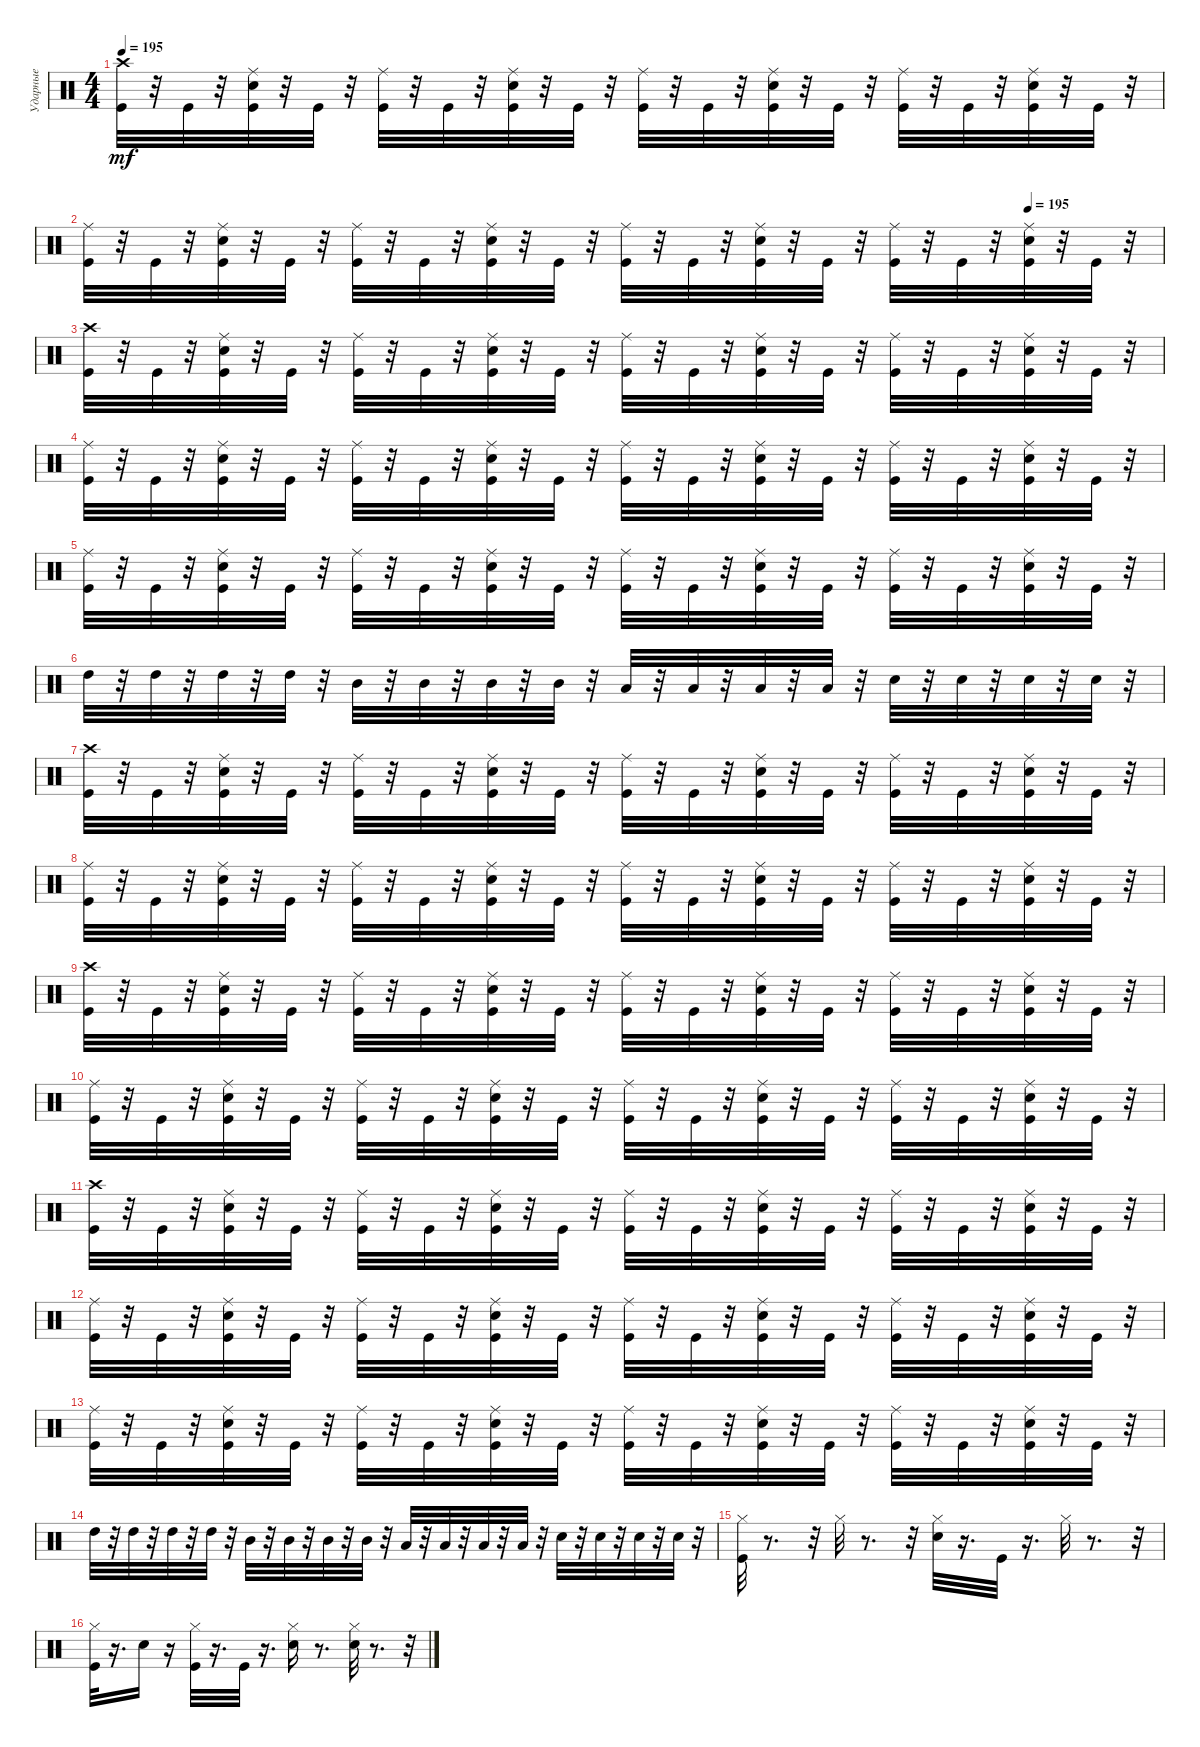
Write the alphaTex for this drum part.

\track ("Ударные" "Ударные") {instrument percussion}
\staff {score}
\articulation defaults
\ts (4 4)
\tempo 195
\clef neutral
\ks c
("Crash high (hit)" "Kick (hit)").32{dy mf} r.32 "Kick (hit)".32 r.32 ("Electric Snare (hit)" "Kick (hit)" "Ride (middle)").32 r.32 "Kick (hit)".32 r.32 ("Ride (middle)" "Kick (hit)").32 r.32 "Kick (hit)".32 r.32 ("Ride (middle)" "Electric Snare (hit)" "Kick (hit)").32 r.32 "Kick (hit)".32 r.32 ("Ride (middle)" "Kick (hit)").32 r.32 "Kick (hit)".32 r.32 ("Ride (middle)" "Kick (hit)" "Electric Snare (hit)").32 r.32 "Kick (hit)".32 r.32 ("Ride (middle)" "Kick (hit)").32 r.32 "Kick (hit)".32 r.32 ("Ride (middle)" "Electric Snare (hit)" "Kick (hit)").32 r.32 "Kick (hit)".32 r.32 |
\tempo (195 0.875)
("Ride (middle)" "Kick (hit)").32 r.32 "Kick (hit)".32 r.32 ("Electric Snare (hit)" "Kick (hit)" "Ride (middle)").32 r.32 "Kick (hit)".32 r.32 ("Ride (middle)" "Kick (hit)").32 r.32 "Kick (hit)".32 r.32 ("Ride (middle)" "Electric Snare (hit)" "Kick (hit)").32 r.32 "Kick (hit)".32 r.32 ("Ride (middle)" "Kick (hit)").32 r.32 "Kick (hit)".32 r.32 ("Ride (middle)" "Kick (hit)" "Electric Snare (hit)").32 r.32 "Kick (hit)".32 r.32 ("Ride (middle)" "Kick (hit)").32 r.32 "Kick (hit)".32 r.32 ("Ride (middle)" "Electric Snare (hit)" "Kick (hit)").32 r.32 "Kick (hit)".32 r.32 |
("Crash high (hit)" "Kick (hit)").32 r.32 "Kick (hit)".32 r.32 ("Electric Snare (hit)" "Kick (hit)" "Ride (middle)").32 r.32 "Kick (hit)".32 r.32 ("Ride (middle)" "Kick (hit)").32 r.32 "Kick (hit)".32 r.32 ("Ride (middle)" "Electric Snare (hit)" "Kick (hit)").32 r.32 "Kick (hit)".32 r.32 ("Ride (middle)" "Kick (hit)").32 r.32 "Kick (hit)".32 r.32 ("Ride (middle)" "Kick (hit)" "Electric Snare (hit)").32 r.32 "Kick (hit)".32 r.32 ("Ride (middle)" "Kick (hit)").32 r.32 "Kick (hit)".32 r.32 ("Ride (middle)" "Electric Snare (hit)" "Kick (hit)").32 r.32 "Kick (hit)".32 r.32 |
("Ride (middle)" "Kick (hit)").32 r.32 "Kick (hit)".32 r.32 ("Electric Snare (hit)" "Kick (hit)" "Ride (middle)").32 r.32 "Kick (hit)".32 r.32 ("Ride (middle)" "Kick (hit)").32 r.32 "Kick (hit)".32 r.32 ("Ride (middle)" "Electric Snare (hit)" "Kick (hit)").32 r.32 "Kick (hit)".32 r.32 ("Ride (middle)" "Kick (hit)").32 r.32 "Kick (hit)".32 r.32 ("Ride (middle)" "Kick (hit)" "Electric Snare (hit)").32 r.32 "Kick (hit)".32 r.32 ("Ride (middle)" "Kick (hit)").32 r.32 "Kick (hit)".32 r.32 ("Ride (middle)" "Electric Snare (hit)" "Kick (hit)").32 r.32 "Kick (hit)".32 r.32 |
("Ride (middle)" "Kick (hit)").32 r.32 "Kick (hit)".32 r.32 ("Electric Snare (hit)" "Kick (hit)" "Ride (middle)").32 r.32 "Kick (hit)".32 r.32 ("Ride (middle)" "Kick (hit)").32 r.32 "Kick (hit)".32 r.32 ("Ride (middle)" "Electric Snare (hit)" "Kick (hit)").32 r.32 "Kick (hit)".32 r.32 ("Ride (middle)" "Kick (hit)").32 r.32 "Kick (hit)".32 r.32 ("Ride (middle)" "Kick (hit)" "Electric Snare (hit)").32 r.32 "Kick (hit)".32 r.32 ("Ride (middle)" "Kick (hit)").32 r.32 "Kick (hit)".32 r.32 ("Ride (middle)" "Electric Snare (hit)" "Kick (hit)").32 r.32 "Kick (hit)".32 r.32 |
"High Tom (hit)".32 r.32 "High Tom (hit)".32 r.32 "High Tom (hit)".32 r.32 "High Tom (hit)".32 r.32 "Mid Tom (hit)".32 r.32 "Mid Tom (hit)".32 r.32 "Mid Tom (hit)".32 r.32 "Mid Tom (hit)".32 r.32 "Low Tom (hit)".32 r.32 "Low Tom (hit)".32 r.32 "Low Tom (hit)".32 r.32 "Low Tom (hit)".32 r.32 "Electric Snare (hit)".32 r.32 "Electric Snare (hit)".32 r.32 "Electric Snare (hit)".32 r.32 "Electric Snare (hit)".32 r.32 |
("Crash high (hit)" "Kick (hit)").32 r.32 "Kick (hit)".32 r.32 ("Electric Snare (hit)" "Kick (hit)" "Ride (middle)").32 r.32 "Kick (hit)".32 r.32 ("Ride (middle)" "Kick (hit)").32 r.32 "Kick (hit)".32 r.32 ("Ride (middle)" "Electric Snare (hit)" "Kick (hit)").32 r.32 "Kick (hit)".32 r.32 ("Ride (middle)" "Kick (hit)").32 r.32 "Kick (hit)".32 r.32 ("Ride (middle)" "Kick (hit)" "Electric Snare (hit)").32 r.32 "Kick (hit)".32 r.32 ("Ride (middle)" "Kick (hit)").32 r.32 "Kick (hit)".32 r.32 ("Ride (middle)" "Electric Snare (hit)" "Kick (hit)").32 r.32 "Kick (hit)".32 r.32 |
("Ride (middle)" "Kick (hit)").32 r.32 "Kick (hit)".32 r.32 ("Electric Snare (hit)" "Kick (hit)" "Ride (middle)").32 r.32 "Kick (hit)".32 r.32 ("Ride (middle)" "Kick (hit)").32 r.32 "Kick (hit)".32 r.32 ("Ride (middle)" "Electric Snare (hit)" "Kick (hit)").32 r.32 "Kick (hit)".32 r.32 ("Ride (middle)" "Kick (hit)").32 r.32 "Kick (hit)".32 r.32 ("Ride (middle)" "Kick (hit)" "Electric Snare (hit)").32 r.32 "Kick (hit)".32 r.32 ("Ride (middle)" "Kick (hit)").32 r.32 "Kick (hit)".32 r.32 ("Ride (middle)" "Electric Snare (hit)" "Kick (hit)").32 r.32 "Kick (hit)".32 r.32 |
("Crash high (hit)" "Kick (hit)").32 r.32 "Kick (hit)".32 r.32 ("Electric Snare (hit)" "Kick (hit)" "Ride (middle)").32 r.32 "Kick (hit)".32 r.32 ("Ride (middle)" "Kick (hit)").32 r.32 "Kick (hit)".32 r.32 ("Ride (middle)" "Electric Snare (hit)" "Kick (hit)").32 r.32 "Kick (hit)".32 r.32 ("Ride (middle)" "Kick (hit)").32 r.32 "Kick (hit)".32 r.32 ("Ride (middle)" "Kick (hit)" "Electric Snare (hit)").32 r.32 "Kick (hit)".32 r.32 ("Ride (middle)" "Kick (hit)").32 r.32 "Kick (hit)".32 r.32 ("Ride (middle)" "Electric Snare (hit)" "Kick (hit)").32 r.32 "Kick (hit)".32 r.32 |
("Ride (middle)" "Kick (hit)").32 r.32 "Kick (hit)".32 r.32 ("Electric Snare (hit)" "Kick (hit)" "Ride (middle)").32 r.32 "Kick (hit)".32 r.32 ("Ride (middle)" "Kick (hit)").32 r.32 "Kick (hit)".32 r.32 ("Ride (middle)" "Electric Snare (hit)" "Kick (hit)").32 r.32 "Kick (hit)".32 r.32 ("Ride (middle)" "Kick (hit)").32 r.32 "Kick (hit)".32 r.32 ("Ride (middle)" "Kick (hit)" "Electric Snare (hit)").32 r.32 "Kick (hit)".32 r.32 ("Ride (middle)" "Kick (hit)").32 r.32 "Kick (hit)".32 r.32 ("Ride (middle)" "Electric Snare (hit)" "Kick (hit)").32 r.32 "Kick (hit)".32 r.32 |
("Crash high (hit)" "Kick (hit)").32 r.32 "Kick (hit)".32 r.32 ("Electric Snare (hit)" "Kick (hit)" "Ride (middle)").32 r.32 "Kick (hit)".32 r.32 ("Ride (middle)" "Kick (hit)").32 r.32 "Kick (hit)".32 r.32 ("Ride (middle)" "Electric Snare (hit)" "Kick (hit)").32 r.32 "Kick (hit)".32 r.32 ("Ride (middle)" "Kick (hit)").32 r.32 "Kick (hit)".32 r.32 ("Ride (middle)" "Kick (hit)" "Electric Snare (hit)").32 r.32 "Kick (hit)".32 r.32 ("Ride (middle)" "Kick (hit)").32 r.32 "Kick (hit)".32 r.32 ("Ride (middle)" "Electric Snare (hit)" "Kick (hit)").32 r.32 "Kick (hit)".32 r.32 |
("Ride (middle)" "Kick (hit)").32 r.32 "Kick (hit)".32 r.32 ("Electric Snare (hit)" "Kick (hit)" "Ride (middle)").32 r.32 "Kick (hit)".32 r.32 ("Ride (middle)" "Kick (hit)").32 r.32 "Kick (hit)".32 r.32 ("Ride (middle)" "Electric Snare (hit)" "Kick (hit)").32 r.32 "Kick (hit)".32 r.32 ("Ride (middle)" "Kick (hit)").32 r.32 "Kick (hit)".32 r.32 ("Ride (middle)" "Kick (hit)" "Electric Snare (hit)").32 r.32 "Kick (hit)".32 r.32 ("Ride (middle)" "Kick (hit)").32 r.32 "Kick (hit)".32 r.32 ("Ride (middle)" "Electric Snare (hit)" "Kick (hit)").32 r.32 "Kick (hit)".32 r.32 |
("Ride (middle)" "Kick (hit)").32 r.32 "Kick (hit)".32 r.32 ("Electric Snare (hit)" "Kick (hit)" "Ride (middle)").32 r.32 "Kick (hit)".32 r.32 ("Ride (middle)" "Kick (hit)").32 r.32 "Kick (hit)".32 r.32 ("Ride (middle)" "Electric Snare (hit)" "Kick (hit)").32 r.32 "Kick (hit)".32 r.32 ("Ride (middle)" "Kick (hit)").32 r.32 "Kick (hit)".32 r.32 ("Ride (middle)" "Kick (hit)" "Electric Snare (hit)").32 r.32 "Kick (hit)".32 r.32 ("Ride (middle)" "Kick (hit)").32 r.32 "Kick (hit)".32 r.32 ("Ride (middle)" "Electric Snare (hit)" "Kick (hit)").32 r.32 "Kick (hit)".32 r.32 |
"High Tom (hit)".32 r.32 "High Tom (hit)".32 r.32 "High Tom (hit)".32 r.32 "High Tom (hit)".32 r.32 "Mid Tom (hit)".32 r.32 "Mid Tom (hit)".32 r.32 "Mid Tom (hit)".32 r.32 "Mid Tom (hit)".32 r.32 "Low Tom (hit)".32 r.32 "Low Tom (hit)".32 r.32 "Low Tom (hit)".32 r.32 "Low Tom (hit)".32 r.32 "Electric Snare (hit)".32 r.32 "Electric Snare (hit)".32 r.32 "Electric Snare (hit)".32 r.32 "Electric Snare (hit)".32 r.32 |
("Kick (hit)" "Hi-Hat (closed)").32 r.8{d} r.32 "Hi-Hat (closed)".32 r.8{d} r.32 ("Hi-Hat (closed)" "Electric Snare (hit)").32 r.16{d} "Kick (hit)".32 r.16{d} "Hi-Hat (closed)".32 r.8{d} r.32 |
("Hi-Hat (closed)" "Kick (hit)").32 r.16{d} "Electric Snare (hit)".16 r.16 ("Kick (hit)" "Hi-Hat (closed)").32 r.16{d} "Kick (hit)".32 r.16{d} ("Hi-Hat (closed)" "Electric Snare (hit)").16 r.8{d} ("Electric Snare (hit)" "Hi-Hat (closed)").32 r.8{d} r.32
